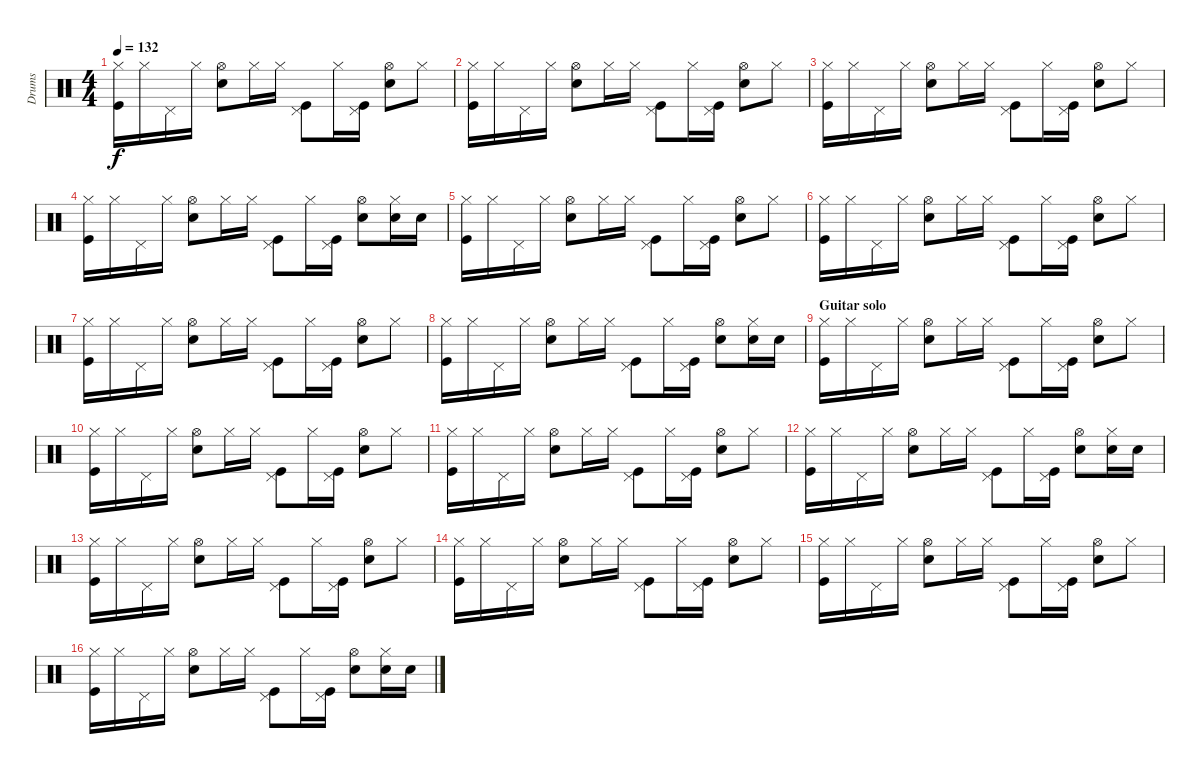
\track ("Drums" "Drums") {instrument percussion}
\staff {score}
\articulation defaults
\ts (4 4)
\tempo 132
\clef neutral
\ks c
("Hi-Hat (closed)" "Kick (hit)").16{dy f} "Hi-Hat (closed)".16 "Pedal Hi-Hat (hit)".16 "Hi-Hat (closed)".16 ("Hi-Hat (open)" "Snare (hit) 2").8 "Hi-Hat (closed)".16 "Hi-Hat (closed)".16 ("Pedal Hi-Hat (hit)" "Kick (hit)").8 "Hi-Hat (closed)".16 ("Pedal Hi-Hat (hit)" "Kick (hit)").16 ("Hi-Hat (open)" "Snare (hit) 2").8 "Hi-Hat (closed)".8 |
("Hi-Hat (closed)" "Kick (hit)").16 "Hi-Hat (closed)".16 "Pedal Hi-Hat (hit)".16 "Hi-Hat (closed)".16 ("Hi-Hat (open)" "Snare (hit) 2").8 "Hi-Hat (closed)".16 "Hi-Hat (closed)".16 ("Pedal Hi-Hat (hit)" "Kick (hit)").8 "Hi-Hat (closed)".16 ("Pedal Hi-Hat (hit)" "Kick (hit)").16 ("Hi-Hat (open)" "Snare (hit) 2").8 "Hi-Hat (closed)".8 |
("Hi-Hat (closed)" "Kick (hit)").16 "Hi-Hat (closed)".16 "Pedal Hi-Hat (hit)".16 "Hi-Hat (closed)".16 ("Hi-Hat (open)" "Snare (hit) 2").8 "Hi-Hat (closed)".16 "Hi-Hat (closed)".16 ("Pedal Hi-Hat (hit)" "Kick (hit)").8 "Hi-Hat (closed)".16 ("Pedal Hi-Hat (hit)" "Kick (hit)").16 ("Hi-Hat (open)" "Snare (hit) 2").8 "Hi-Hat (closed)".8 |
("Hi-Hat (closed)" "Kick (hit)").16 "Hi-Hat (closed)".16 "Pedal Hi-Hat (hit)".16 "Hi-Hat (closed)".16 ("Hi-Hat (open)" "Snare (hit) 2").8 "Hi-Hat (closed)".16 "Hi-Hat (closed)".16 ("Pedal Hi-Hat (hit)" "Kick (hit)").8 "Hi-Hat (closed)".16 ("Pedal Hi-Hat (hit)" "Kick (hit)").16 ("Hi-Hat (open)" "Snare (hit) 2").8 ("Hi-Hat (closed)" "Snare (hit) 2").16 "Snare (hit) 2".16 |
("Hi-Hat (closed)" "Kick (hit)").16 "Hi-Hat (closed)".16 "Pedal Hi-Hat (hit)".16 "Hi-Hat (closed)".16 ("Hi-Hat (open)" "Snare (hit) 2").8 "Hi-Hat (closed)".16 "Hi-Hat (closed)".16 ("Pedal Hi-Hat (hit)" "Kick (hit)").8 "Hi-Hat (closed)".16 ("Pedal Hi-Hat (hit)" "Kick (hit)").16 ("Hi-Hat (open)" "Snare (hit) 2").8 "Hi-Hat (closed)".8 |
("Hi-Hat (closed)" "Kick (hit)").16 "Hi-Hat (closed)".16 "Pedal Hi-Hat (hit)".16 "Hi-Hat (closed)".16 ("Hi-Hat (open)" "Snare (hit) 2").8 "Hi-Hat (closed)".16 "Hi-Hat (closed)".16 ("Pedal Hi-Hat (hit)" "Kick (hit)").8 "Hi-Hat (closed)".16 ("Pedal Hi-Hat (hit)" "Kick (hit)").16 ("Hi-Hat (open)" "Snare (hit) 2").8 "Hi-Hat (closed)".8 |
("Hi-Hat (closed)" "Kick (hit)").16 "Hi-Hat (closed)".16 "Pedal Hi-Hat (hit)".16 "Hi-Hat (closed)".16 ("Hi-Hat (open)" "Snare (hit) 2").8 "Hi-Hat (closed)".16 "Hi-Hat (closed)".16 ("Pedal Hi-Hat (hit)" "Kick (hit)").8 "Hi-Hat (closed)".16 ("Pedal Hi-Hat (hit)" "Kick (hit)").16 ("Hi-Hat (open)" "Snare (hit) 2").8 "Hi-Hat (closed)".8 |
("Hi-Hat (closed)" "Kick (hit)").16 "Hi-Hat (closed)".16 "Pedal Hi-Hat (hit)".16 "Hi-Hat (closed)".16 ("Hi-Hat (open)" "Snare (hit) 2").8 "Hi-Hat (closed)".16 "Hi-Hat (closed)".16 ("Pedal Hi-Hat (hit)" "Kick (hit)").8 "Hi-Hat (closed)".16 ("Pedal Hi-Hat (hit)" "Kick (hit)").16 ("Hi-Hat (open)" "Snare (hit) 2").8 ("Hi-Hat (closed)" "Snare (hit) 2").16 "Snare (hit) 2".16 |
\section ("" "Guitar solo")
("Hi-Hat (closed)" "Kick (hit)").16 "Hi-Hat (closed)".16 "Pedal Hi-Hat (hit)".16 "Hi-Hat (closed)".16 ("Hi-Hat (open)" "Snare (hit) 2").8 "Hi-Hat (closed)".16 "Hi-Hat (closed)".16 ("Pedal Hi-Hat (hit)" "Kick (hit)").8 "Hi-Hat (closed)".16 ("Pedal Hi-Hat (hit)" "Kick (hit)").16 ("Hi-Hat (open)" "Snare (hit) 2").8 "Hi-Hat (closed)".8 |
("Hi-Hat (closed)" "Kick (hit)").16 "Hi-Hat (closed)".16 "Pedal Hi-Hat (hit)".16 "Hi-Hat (closed)".16 ("Hi-Hat (open)" "Snare (hit) 2").8 "Hi-Hat (closed)".16 "Hi-Hat (closed)".16 ("Pedal Hi-Hat (hit)" "Kick (hit)").8 "Hi-Hat (closed)".16 ("Pedal Hi-Hat (hit)" "Kick (hit)").16 ("Hi-Hat (open)" "Snare (hit) 2").8 "Hi-Hat (closed)".8 |
("Hi-Hat (closed)" "Kick (hit)").16 "Hi-Hat (closed)".16 "Pedal Hi-Hat (hit)".16 "Hi-Hat (closed)".16 ("Hi-Hat (open)" "Snare (hit) 2").8 "Hi-Hat (closed)".16 "Hi-Hat (closed)".16 ("Pedal Hi-Hat (hit)" "Kick (hit)").8 "Hi-Hat (closed)".16 ("Pedal Hi-Hat (hit)" "Kick (hit)").16 ("Hi-Hat (open)" "Snare (hit) 2").8 "Hi-Hat (closed)".8 |
("Hi-Hat (closed)" "Kick (hit)").16 "Hi-Hat (closed)".16 "Pedal Hi-Hat (hit)".16 "Hi-Hat (closed)".16 ("Hi-Hat (open)" "Snare (hit) 2").8 "Hi-Hat (closed)".16 "Hi-Hat (closed)".16 ("Pedal Hi-Hat (hit)" "Kick (hit)").8 "Hi-Hat (closed)".16 ("Pedal Hi-Hat (hit)" "Kick (hit)").16 ("Hi-Hat (open)" "Snare (hit) 2").8 ("Hi-Hat (closed)" "Snare (hit) 2").16 "Snare (hit) 2".16 |
("Hi-Hat (closed)" "Kick (hit)").16 "Hi-Hat (closed)".16 "Pedal Hi-Hat (hit)".16 "Hi-Hat (closed)".16 ("Hi-Hat (open)" "Snare (hit) 2").8 "Hi-Hat (closed)".16 "Hi-Hat (closed)".16 ("Pedal Hi-Hat (hit)" "Kick (hit)").8 "Hi-Hat (closed)".16 ("Pedal Hi-Hat (hit)" "Kick (hit)").16 ("Hi-Hat (open)" "Snare (hit) 2").8 "Hi-Hat (closed)".8 |
("Hi-Hat (closed)" "Kick (hit)").16 "Hi-Hat (closed)".16 "Pedal Hi-Hat (hit)".16 "Hi-Hat (closed)".16 ("Hi-Hat (open)" "Snare (hit) 2").8 "Hi-Hat (closed)".16 "Hi-Hat (closed)".16 ("Pedal Hi-Hat (hit)" "Kick (hit)").8 "Hi-Hat (closed)".16 ("Pedal Hi-Hat (hit)" "Kick (hit)").16 ("Hi-Hat (open)" "Snare (hit) 2").8 "Hi-Hat (closed)".8 |
("Hi-Hat (closed)" "Kick (hit)").16 "Hi-Hat (closed)".16 "Pedal Hi-Hat (hit)".16 "Hi-Hat (closed)".16 ("Hi-Hat (open)" "Snare (hit) 2").8 "Hi-Hat (closed)".16 "Hi-Hat (closed)".16 ("Pedal Hi-Hat (hit)" "Kick (hit)").8 "Hi-Hat (closed)".16 ("Pedal Hi-Hat (hit)" "Kick (hit)").16 ("Hi-Hat (open)" "Snare (hit) 2").8 "Hi-Hat (closed)".8 |
("Hi-Hat (closed)" "Kick (hit)").16 "Hi-Hat (closed)".16 "Pedal Hi-Hat (hit)".16 "Hi-Hat (closed)".16 ("Hi-Hat (open)" "Snare (hit) 2").8 "Hi-Hat (closed)".16 "Hi-Hat (closed)".16 ("Pedal Hi-Hat (hit)" "Kick (hit)").8 "Hi-Hat (closed)".16 ("Pedal Hi-Hat (hit)" "Kick (hit)").16 ("Hi-Hat (open)" "Snare (hit) 2").8 ("Hi-Hat (closed)" "Snare (hit) 2").16 "Snare (hit) 2".16
